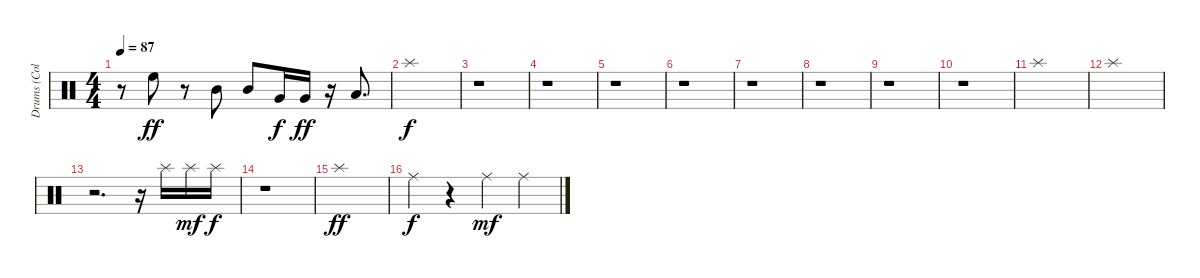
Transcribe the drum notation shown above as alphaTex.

\track ("Drums (Collins)" "Drums (Col") {instrument percussion}
\staff {score}
\articulation defaults
\ts (4 4)
\tempo 87
\clef neutral
\ks c
r.8{dy f} "High Floor Tom (hit)".8{dy ff} r.8 "Mid Tom (hit)".8 "Mid Tom (hit)".8 "Very Low Tom (hit)".16{dy f} "Very Low Tom (hit)".16{dy ff} r.16 "Low Floor Tom (hit)".8{d} |
"Splash (hit)".1{dy f} |
r.1 |
r.1 |
r.1 |
r.1 |
r.1 |
r.1 |
r.1 |
r.1 |
"Splash (hit)".1 |
"Splash (hit)".1 |
r.2{d} r.16 "Splash (hit)".16 "Splash (hit)".16{dy mf} "Splash (hit)".16{dy f} |
r.1 |
"Splash (hit)".1{dy ff} |
"Ride (middle)".4{dy f} r.4 "Ride (middle)".4{dy mf} "Ride (middle)".4
